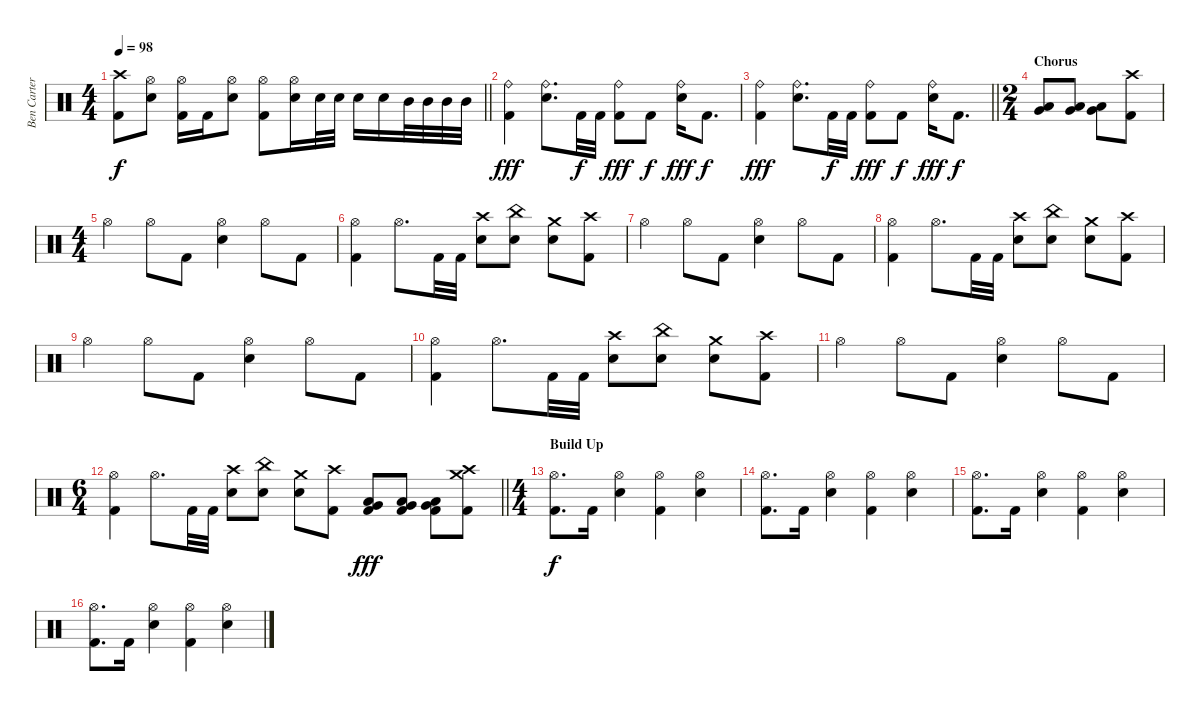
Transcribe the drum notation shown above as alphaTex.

\track ("Ben Carter" "Ben Carter") {instrument percussion}
\staff {score}
\articulation defaults
\ts (4 4)
\tempo 98
\clef neutral
\barLineRight lightlight
\ks c
("Crash high (hit)" "Kick (hit) 2").8{dy f} ("Hi-Hat (open)" "Snare (hit) 2").8 ("Hi-Hat (open)" "Kick (hit) 2").16 "Kick (hit) 2".16 ("Hi-Hat (open)" "Snare (hit) 2").8 ("Hi-Hat (open)" "Kick (hit) 2").8 ("Hi-Hat (open)" "Snare (hit) 2").16 "Snare (hit) 2".32 "Snare (hit) 2".32 "Snare (hit) 2".16 "Snare (hit) 2".16 "Mid Tom (hit)".32 "Mid Tom (hit)".32 "Mid Tom (hit)".32 "Mid Tom (hit)".32 |
("Ride (bell)" "Kick (hit) 2").4{dy fff} ("Ride (bell)" "Snare (hit) 2").8{d} "Kick (hit) 2".32{dy f} "Kick (hit) 2".32 ("Ride (bell)" "Kick (hit) 2").8{dy fff} "Kick (hit) 2".8{dy f} ("Ride (bell)" "Snare (hit) 2").16{dy fff} "Kick (hit) 2".8{d dy f} |
\barLineRight lightlight
("Ride (bell)" "Kick (hit) 2").4{dy fff} ("Ride (bell)" "Snare (hit) 2").8{d} "Kick (hit) 2".32{dy f} "Kick (hit) 2".32 ("Ride (bell)" "Kick (hit) 2").8{dy fff} "Kick (hit) 2".8{dy f} ("Ride (bell)" "Snare (hit) 2").16{dy fff} "Kick (hit) 2".8{d dy f} |
\ts (2 4)
\section ("" "Chorus ")
("Very Low Tom (hit)" "Low Floor Tom (hit)").8 ("Very Low Tom (hit)" "Low Floor Tom (hit)").8 ("Very Low Tom (hit)" "Low Floor Tom (hit)").8 ("Crash high (hit)" "Kick (hit) 2").8 |
\ts (4 4)
"Hi-Hat (open)".4 "Hi-Hat (open)".8 "Kick (hit) 2".8 ("Hi-Hat (open)" "Snare (hit) 2").4 "Hi-Hat (open)".8 "Kick (hit) 2".8 |
("Hi-Hat (open)" "Kick (hit) 2").4 "Hi-Hat (open)".8{d} "Kick (hit) 2".32 "Kick (hit) 2".32 ("Crash high (hit)" "Snare (hit) 2").8 ("China (hit)" "Snare (hit) 2").8 ("Crash medium (hit)" "Snare (hit) 2").8 ("Crash high (hit)" "Kick (hit) 2").8 |
"Hi-Hat (open)".4 "Hi-Hat (open)".8 "Kick (hit) 2".8 ("Hi-Hat (open)" "Snare (hit) 2").4 "Hi-Hat (open)".8 "Kick (hit) 2".8 |
("Hi-Hat (open)" "Kick (hit) 2").4 "Hi-Hat (open)".8{d} "Kick (hit) 2".32 "Kick (hit) 2".32 ("Crash high (hit)" "Snare (hit) 2").8 ("China (hit)" "Snare (hit) 2").8 ("Crash medium (hit)" "Snare (hit) 2").8 ("Crash high (hit)" "Kick (hit) 2").8 |
"Hi-Hat (open)".4 "Hi-Hat (open)".8 "Kick (hit) 2".8 ("Hi-Hat (open)" "Snare (hit) 2").4 "Hi-Hat (open)".8 "Kick (hit) 2".8 |
("Hi-Hat (open)" "Kick (hit) 2").4 "Hi-Hat (open)".8{d} "Kick (hit) 2".32 "Kick (hit) 2".32 ("Crash high (hit)" "Snare (hit) 2").8 ("China (hit)" "Snare (hit) 2").8 ("Crash medium (hit)" "Snare (hit) 2").8 ("Crash high (hit)" "Kick (hit) 2").8 |
"Hi-Hat (open)".4 "Hi-Hat (open)".8 "Kick (hit) 2".8 ("Hi-Hat (open)" "Snare (hit) 2").4 "Hi-Hat (open)".8 "Kick (hit) 2".8 |
\ts (6 4)
\barLineRight lightlight
("Hi-Hat (open)" "Kick (hit) 2").4 "Hi-Hat (open)".8{d} "Kick (hit) 2".32 "Kick (hit) 2".32 ("Crash high (hit)" "Snare (hit) 2").8 ("China (hit)" "Snare (hit) 2").8 ("Crash medium (hit)" "Snare (hit) 2").8 ("Crash high (hit)" "Kick (hit) 2").8 ("Low Floor Tom (hit)" "Very Low Tom (hit)" "Kick (hit) 2").8{dy fff} ("Low Floor Tom (hit)" "Very Low Tom (hit)" "Kick (hit) 2").8 ("Low Floor Tom (hit)" "Very Low Tom (hit)" "Kick (hit) 2").8 ("Crash medium (hit)" "Crash high (hit)" "Kick (hit) 2").8 |
\ts (4 4)
\section ("" "Build Up")
("Hi-Hat (open)" "Kick (hit) 2").8{d dy f} "Kick (hit) 2".16 ("Hi-Hat (open)" "Snare (hit) 2").4 ("Hi-Hat (open)" "Kick (hit) 2").4 ("Hi-Hat (open)" "Snare (hit) 2").4 |
("Hi-Hat (open)" "Kick (hit) 2").8{d} "Kick (hit) 2".16 ("Hi-Hat (open)" "Snare (hit) 2").4 ("Hi-Hat (open)" "Kick (hit) 2").4 ("Hi-Hat (open)" "Snare (hit) 2").4 |
("Hi-Hat (open)" "Kick (hit) 2").8{d} "Kick (hit) 2".16 ("Hi-Hat (open)" "Snare (hit) 2").4 ("Hi-Hat (open)" "Kick (hit) 2").4 ("Hi-Hat (open)" "Snare (hit) 2").4 |
("Hi-Hat (open)" "Kick (hit) 2").8{d} "Kick (hit) 2".16 ("Hi-Hat (open)" "Snare (hit) 2").4 ("Hi-Hat (open)" "Kick (hit) 2").4 ("Hi-Hat (open)" "Snare (hit) 2").4
